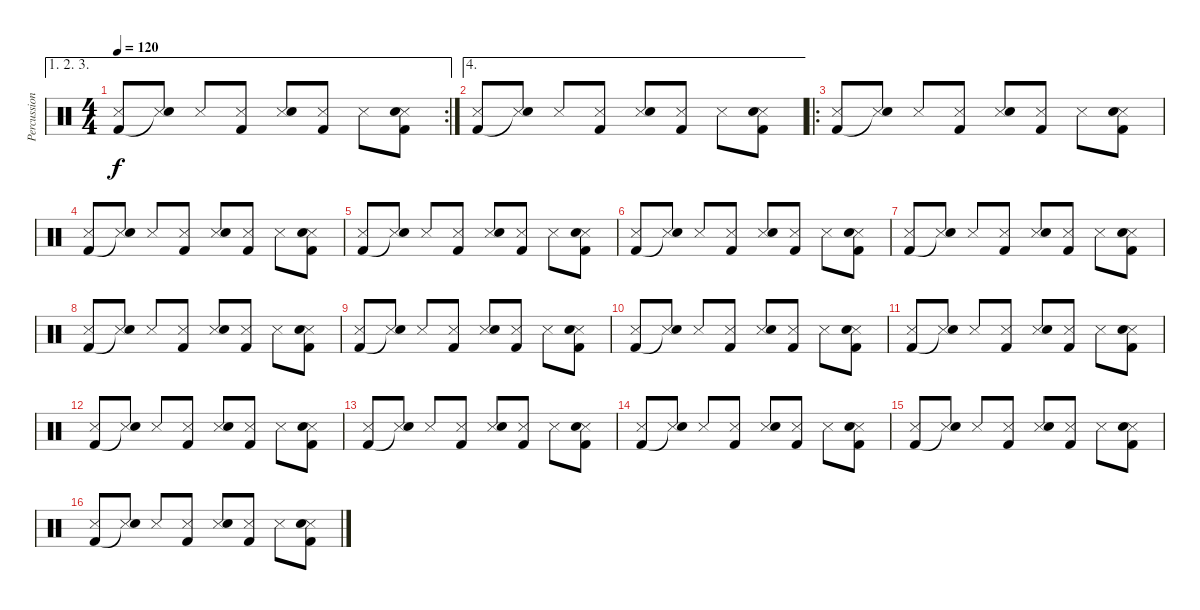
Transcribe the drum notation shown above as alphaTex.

\track ("Percussion" "Percussion") {instrument percussion}
\staff {score}
\articulation defaults
\ae (1 2 3)
\rc 2
\ts (4 4)
\tempo 120
\clef neutral
\ks c
("Snare (side stick) 3" "Kick (hit) 2").8{dy f} ("Snare (side stick) 3" "Snare (hit)"{t}).8 "Snare (side stick) 3".8 ("Snare (side stick) 3" "Kick (hit) 2").8 ("Snare (side stick) 3" "Electric Snare (hit)").8 ("Snare (side stick) 3" "Kick (hit) 2").8 "Snare (side stick) 3".8 ("Snare (side stick) 3" "Electric Snare (hit)" "Kick (hit) 2").8 |
\ae 4
("Snare (side stick) 3" "Kick (hit) 2").8 ("Snare (side stick) 3" "Snare (hit)"{t}).8 "Snare (side stick) 3".8 ("Snare (side stick) 3" "Kick (hit) 2").8 ("Snare (side stick) 3" "Electric Snare (hit)").8 ("Snare (side stick) 3" "Kick (hit) 2").8 "Snare (side stick) 3".8 ("Snare (side stick) 3" "Electric Snare (hit)" "Kick (hit) 2").8 |
\ro
("Snare (side stick) 3" "Kick (hit) 2").8 ("Snare (side stick) 3" "Snare (hit)"{t}).8 "Snare (side stick) 3".8 ("Snare (side stick) 3" "Kick (hit) 2").8 ("Snare (side stick) 3" "Electric Snare (hit)").8 ("Snare (side stick) 3" "Kick (hit) 2").8 "Snare (side stick) 3".8 ("Snare (side stick) 3" "Electric Snare (hit)" "Kick (hit) 2").8 |
("Snare (side stick) 3" "Kick (hit) 2").8 ("Snare (side stick) 3" "Snare (hit)"{t}).8 "Snare (side stick) 3".8 ("Snare (side stick) 3" "Kick (hit) 2").8 ("Snare (side stick) 3" "Electric Snare (hit)").8 ("Snare (side stick) 3" "Kick (hit) 2").8 "Snare (side stick) 3".8 ("Snare (side stick) 3" "Electric Snare (hit)" "Kick (hit) 2").8 |
("Snare (side stick) 3" "Kick (hit) 2").8 ("Snare (side stick) 3" "Snare (hit)"{t}).8 "Snare (side stick) 3".8 ("Snare (side stick) 3" "Kick (hit) 2").8 ("Snare (side stick) 3" "Electric Snare (hit)").8 ("Snare (side stick) 3" "Kick (hit) 2").8 "Snare (side stick) 3".8 ("Snare (side stick) 3" "Electric Snare (hit)" "Kick (hit) 2").8 |
("Snare (side stick) 3" "Kick (hit) 2").8 ("Snare (side stick) 3" "Snare (hit)"{t}).8 "Snare (side stick) 3".8 ("Snare (side stick) 3" "Kick (hit) 2").8 ("Snare (side stick) 3" "Electric Snare (hit)").8 ("Snare (side stick) 3" "Kick (hit) 2").8 "Snare (side stick) 3".8 ("Snare (side stick) 3" "Electric Snare (hit)" "Kick (hit) 2").8 |
("Snare (side stick) 3" "Kick (hit) 2").8 ("Snare (side stick) 3" "Snare (hit)"{t}).8 "Snare (side stick) 3".8 ("Snare (side stick) 3" "Kick (hit) 2").8 ("Snare (side stick) 3" "Electric Snare (hit)").8 ("Snare (side stick) 3" "Kick (hit) 2").8 "Snare (side stick) 3".8 ("Snare (side stick) 3" "Electric Snare (hit)" "Kick (hit) 2").8 |
("Snare (side stick) 3" "Kick (hit) 2").8 ("Snare (side stick) 3" "Snare (hit)"{t}).8 "Snare (side stick) 3".8 ("Snare (side stick) 3" "Kick (hit) 2").8 ("Snare (side stick) 3" "Electric Snare (hit)").8 ("Snare (side stick) 3" "Kick (hit) 2").8 "Snare (side stick) 3".8 ("Snare (side stick) 3" "Electric Snare (hit)" "Kick (hit) 2").8 |
("Snare (side stick) 3" "Kick (hit) 2").8 ("Snare (side stick) 3" "Snare (hit)"{t}).8 "Snare (side stick) 3".8 ("Snare (side stick) 3" "Kick (hit) 2").8 ("Snare (side stick) 3" "Electric Snare (hit)").8 ("Snare (side stick) 3" "Kick (hit) 2").8 "Snare (side stick) 3".8 ("Snare (side stick) 3" "Electric Snare (hit)" "Kick (hit) 2").8 |
("Snare (side stick) 3" "Kick (hit) 2").8 ("Snare (side stick) 3" "Snare (hit)"{t}).8 "Snare (side stick) 3".8 ("Snare (side stick) 3" "Kick (hit) 2").8 ("Snare (side stick) 3" "Electric Snare (hit)").8 ("Snare (side stick) 3" "Kick (hit) 2").8 "Snare (side stick) 3".8 ("Snare (side stick) 3" "Electric Snare (hit)" "Kick (hit) 2").8 |
("Snare (side stick) 3" "Kick (hit) 2").8 ("Snare (side stick) 3" "Snare (hit)"{t}).8 "Snare (side stick) 3".8 ("Snare (side stick) 3" "Kick (hit) 2").8 ("Snare (side stick) 3" "Electric Snare (hit)").8 ("Snare (side stick) 3" "Kick (hit) 2").8 "Snare (side stick) 3".8 ("Snare (side stick) 3" "Electric Snare (hit)" "Kick (hit) 2").8 |
("Snare (side stick) 3" "Kick (hit) 2").8 ("Snare (side stick) 3" "Snare (hit)"{t}).8 "Snare (side stick) 3".8 ("Snare (side stick) 3" "Kick (hit) 2").8 ("Snare (side stick) 3" "Electric Snare (hit)").8 ("Snare (side stick) 3" "Kick (hit) 2").8 "Snare (side stick) 3".8 ("Snare (side stick) 3" "Electric Snare (hit)" "Kick (hit) 2").8 |
("Snare (side stick) 3" "Kick (hit) 2").8 ("Snare (side stick) 3" "Snare (hit)"{t}).8 "Snare (side stick) 3".8 ("Snare (side stick) 3" "Kick (hit) 2").8 ("Snare (side stick) 3" "Electric Snare (hit)").8 ("Snare (side stick) 3" "Kick (hit) 2").8 "Snare (side stick) 3".8 ("Snare (side stick) 3" "Electric Snare (hit)" "Kick (hit) 2").8 |
("Snare (side stick) 3" "Kick (hit) 2").8 ("Snare (side stick) 3" "Snare (hit)"{t}).8 "Snare (side stick) 3".8 ("Snare (side stick) 3" "Kick (hit) 2").8 ("Snare (side stick) 3" "Electric Snare (hit)").8 ("Snare (side stick) 3" "Kick (hit) 2").8 "Snare (side stick) 3".8 ("Snare (side stick) 3" "Electric Snare (hit)" "Kick (hit) 2").8 |
("Snare (side stick) 3" "Kick (hit) 2").8 ("Snare (side stick) 3" "Snare (hit)"{t}).8 "Snare (side stick) 3".8 ("Snare (side stick) 3" "Kick (hit) 2").8 ("Snare (side stick) 3" "Electric Snare (hit)").8 ("Snare (side stick) 3" "Kick (hit) 2").8 "Snare (side stick) 3".8 ("Snare (side stick) 3" "Electric Snare (hit)" "Kick (hit) 2").8 |
("Snare (side stick) 3" "Kick (hit) 2").8 ("Snare (side stick) 3" "Snare (hit)"{t}).8 "Snare (side stick) 3".8 ("Snare (side stick) 3" "Kick (hit) 2").8 ("Snare (side stick) 3" "Electric Snare (hit)").8 ("Snare (side stick) 3" "Kick (hit) 2").8 "Snare (side stick) 3".8 ("Snare (side stick) 3" "Electric Snare (hit)" "Kick (hit) 2").8
